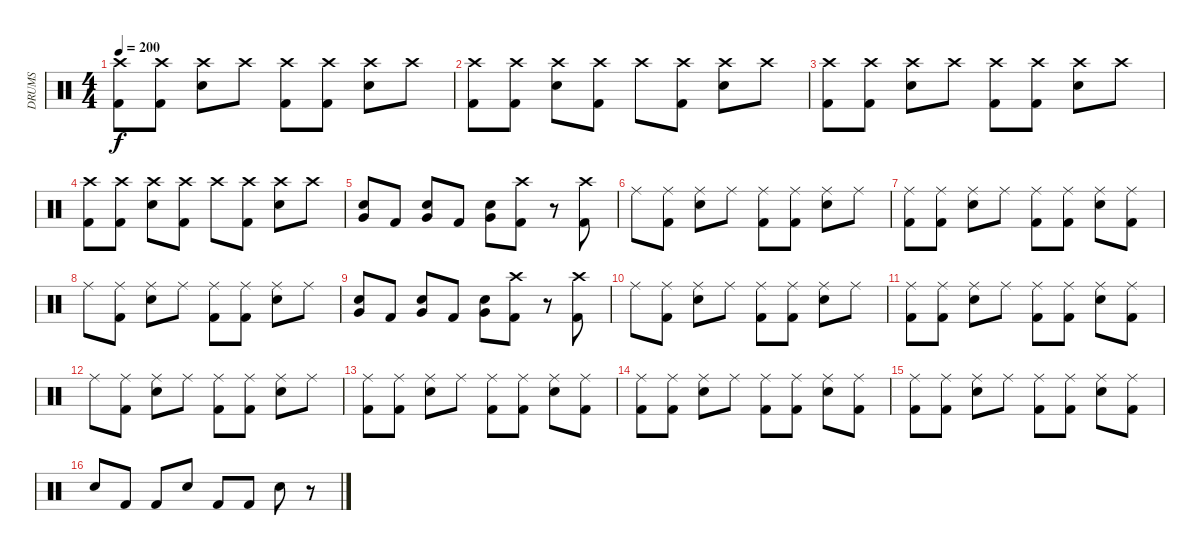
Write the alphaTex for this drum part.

\track ("DRUMS" "DRUMS") {instrument percussion}
\staff {score}
\articulation defaults
\ts (4 4)
\tempo 200
\clef neutral
\ks c
("Crash high (hit)" "Kick (hit) 2").8{dy f} ("Crash high (hit)" "Kick (hit) 2").8 ("Crash high (hit)" "Snare (hit) 2").8 "Crash high (hit)".8 ("Crash high (hit)" "Kick (hit) 2").8 ("Crash high (hit)" "Kick (hit) 2").8 ("Crash high (hit)" "Snare (hit) 2").8 "Crash high (hit)".8 |
("Crash high (hit)" "Kick (hit) 2").8 ("Crash high (hit)" "Kick (hit) 2").8 ("Crash high (hit)" "Snare (hit) 2").8 ("Crash high (hit)" "Kick (hit) 2").8 "Crash high (hit)".8 ("Crash high (hit)" "Kick (hit) 2").8 ("Crash high (hit)" "Snare (hit) 2").8 "Crash high (hit)".8 |
("Crash high (hit)" "Kick (hit) 2").8 ("Crash high (hit)" "Kick (hit) 2").8 ("Crash high (hit)" "Snare (hit) 2").8 "Crash high (hit)".8 ("Crash high (hit)" "Kick (hit) 2").8 ("Crash high (hit)" "Kick (hit) 2").8 ("Crash high (hit)" "Snare (hit) 2").8 "Crash high (hit)".8 |
("Crash high (hit)" "Kick (hit) 2").8 ("Crash high (hit)" "Kick (hit) 2").8 ("Crash high (hit)" "Snare (hit) 2").8 ("Crash high (hit)" "Kick (hit) 2").8 "Crash high (hit)".8 ("Crash high (hit)" "Kick (hit) 2").8 ("Crash high (hit)" "Snare (hit) 2").8 "Crash high (hit)".8 |
("Very Low Tom (hit)" "Snare (hit) 2").8 "Kick (hit) 2".8 ("Very Low Tom (hit)" "Snare (hit) 2").8 "Kick (hit) 2".8 ("Very Low Tom (hit)" "Snare (hit) 2").8 ("Crash high (hit)" "Kick (hit) 2").8 r.8 ("Crash high (hit)" "Kick (hit) 2").8 |
"Ride (middle)".8 ("Ride (middle)" "Kick (hit) 2").8 ("Ride (middle)" "Snare (hit) 2").8 "Ride (middle)".8 ("Ride (middle)" "Kick (hit) 2").8 ("Ride (middle)" "Kick (hit) 2").8 ("Ride (middle)" "Snare (hit) 2").8 "Ride (middle)".8 |
("Ride (middle)" "Kick (hit) 2").8 ("Ride (middle)" "Kick (hit) 2").8 ("Ride (middle)" "Snare (hit) 2").8 "Ride (middle)".8 ("Ride (middle)" "Kick (hit) 2").8 ("Ride (middle)" "Kick (hit) 2").8 ("Ride (middle)" "Snare (hit) 2").8 ("Ride (middle)" "Kick (hit) 2").8 |
"Ride (middle)".8 ("Ride (middle)" "Kick (hit) 2").8 ("Ride (middle)" "Snare (hit) 2").8 "Ride (middle)".8 ("Ride (middle)" "Kick (hit) 2").8 ("Ride (middle)" "Kick (hit) 2").8 ("Ride (middle)" "Snare (hit) 2").8 "Ride (middle)".8 |
("Very Low Tom (hit)" "Snare (hit) 2").8 "Kick (hit) 2".8 ("Very Low Tom (hit)" "Snare (hit) 2").8 "Kick (hit) 2".8 ("Very Low Tom (hit)" "Snare (hit) 2").8 ("Crash high (hit)" "Kick (hit) 2").8 r.8 ("Crash high (hit)" "Kick (hit) 2").8 |
"Ride (middle)".8 ("Ride (middle)" "Kick (hit) 2").8 ("Ride (middle)" "Snare (hit) 2").8 "Ride (middle)".8 ("Ride (middle)" "Kick (hit) 2").8 ("Ride (middle)" "Kick (hit) 2").8 ("Ride (middle)" "Snare (hit) 2").8 "Ride (middle)".8 |
("Ride (middle)" "Kick (hit) 2").8 ("Ride (middle)" "Kick (hit) 2").8 ("Ride (middle)" "Snare (hit) 2").8 "Ride (middle)".8 ("Ride (middle)" "Kick (hit) 2").8 ("Ride (middle)" "Kick (hit) 2").8 ("Ride (middle)" "Snare (hit) 2").8 ("Ride (middle)" "Kick (hit) 2").8 |
"Ride (middle)".8 ("Ride (middle)" "Kick (hit) 2").8 ("Ride (middle)" "Snare (hit) 2").8 "Ride (middle)".8 ("Ride (middle)" "Kick (hit) 2").8 ("Ride (middle)" "Kick (hit) 2").8 ("Ride (middle)" "Snare (hit) 2").8 "Ride (middle)".8 |
("Ride (middle)" "Kick (hit) 2").8 ("Ride (middle)" "Kick (hit) 2").8 ("Ride (middle)" "Snare (hit) 2").8 "Ride (middle)".8 ("Ride (middle)" "Kick (hit) 2").8 ("Ride (middle)" "Kick (hit) 2").8 ("Ride (middle)" "Snare (hit) 2").8 ("Ride (middle)" "Kick (hit) 2").8 |
("Ride (middle)" "Kick (hit) 2").8 ("Ride (middle)" "Kick (hit) 2").8 ("Ride (middle)" "Snare (hit) 2").8 "Ride (middle)".8 ("Ride (middle)" "Kick (hit) 2").8 ("Ride (middle)" "Kick (hit) 2").8 ("Ride (middle)" "Snare (hit) 2").8 ("Ride (middle)" "Kick (hit) 2").8 |
("Ride (middle)" "Kick (hit) 2").8 ("Ride (middle)" "Kick (hit) 2").8 ("Ride (middle)" "Snare (hit) 2").8 "Ride (middle)".8 ("Ride (middle)" "Kick (hit) 2").8 ("Ride (middle)" "Kick (hit) 2").8 ("Ride (middle)" "Snare (hit) 2").8 ("Ride (middle)" "Kick (hit) 2").8 |
"Snare (hit) 2".8 "Kick (hit) 2".8 "Kick (hit) 2".8 "Snare (hit) 2".8 "Kick (hit) 2".8 "Kick (hit) 2".8 "Snare (hit) 2".8 r.8
